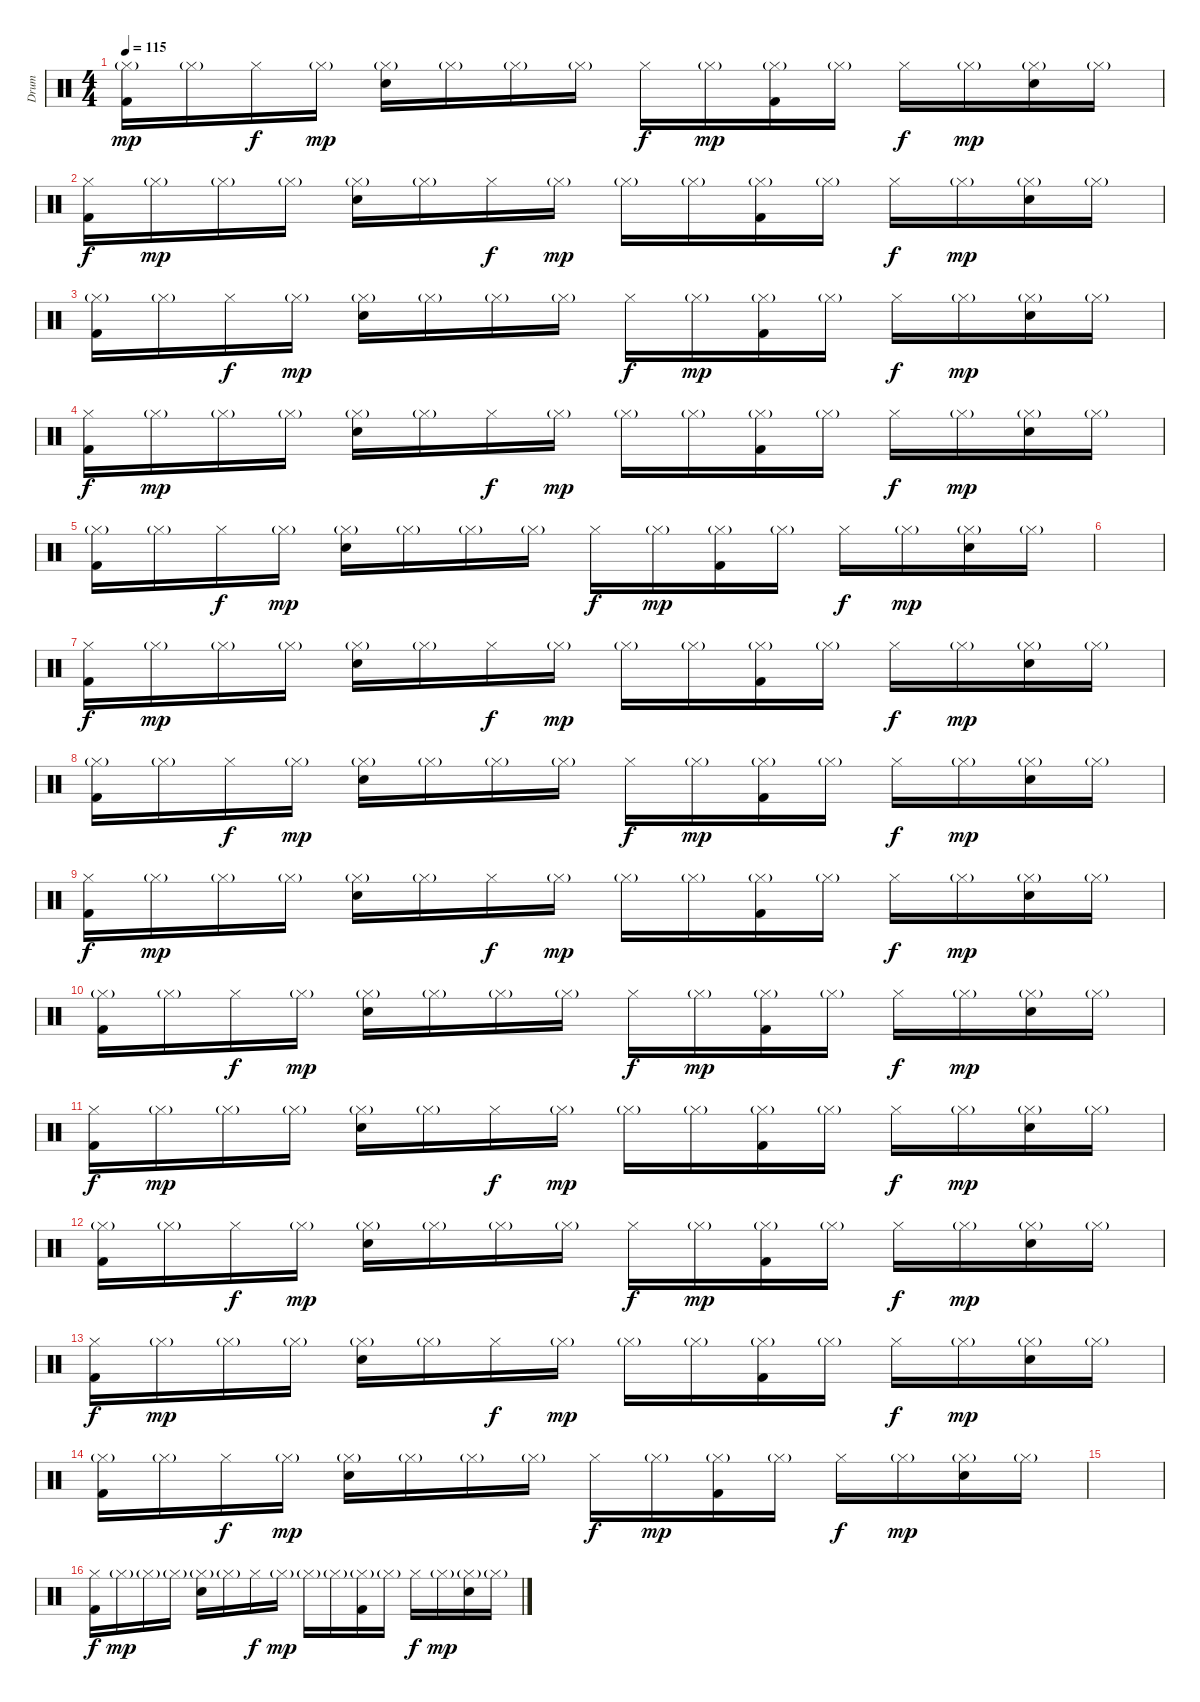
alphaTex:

\track ("Drum" "Drum") {instrument percussion}
\staff {score}
\articulation defaults
\ts (4 4)
\tempo 115
\clef neutral
\ks c
("Kick (hit) 2" "Hi-Hat (closed)"{g}).16{dy mp} "Hi-Hat (closed)"{g}.16 "Hi-Hat (closed)".16{dy f} "Hi-Hat (closed)"{g}.16{dy mp} ("Electric Snare (hit)" "Hi-Hat (closed)"{g}).16 "Hi-Hat (closed)"{g}.16 "Hi-Hat (closed)"{g}.16 "Hi-Hat (closed)"{g}.16 "Hi-Hat (closed)".16{dy f} "Hi-Hat (closed)"{g}.16{dy mp} ("Kick (hit) 2" "Hi-Hat (closed)"{g}).16 "Hi-Hat (closed)"{g}.16 "Hi-Hat (closed)".16{dy f} "Hi-Hat (closed)"{g}.16{dy mp} ("Electric Snare (hit)" "Hi-Hat (closed)"{g}).16 "Hi-Hat (closed)"{g}.16 |
("Kick (hit) 2" "Hi-Hat (closed)").16{dy f} "Hi-Hat (closed)"{g}.16{dy mp} "Hi-Hat (closed)"{g}.16 "Hi-Hat (closed)"{g}.16 ("Electric Snare (hit)" "Hi-Hat (closed)"{g}).16 "Hi-Hat (closed)"{g}.16 "Hi-Hat (closed)".16{dy f} "Hi-Hat (closed)"{g}.16{dy mp} "Hi-Hat (closed)"{g}.16 "Hi-Hat (closed)"{g}.16 ("Kick (hit) 2" "Hi-Hat (closed)"{g}).16 "Hi-Hat (closed)"{g}.16 "Hi-Hat (closed)".16{dy f} "Hi-Hat (closed)"{g}.16{dy mp} ("Electric Snare (hit)" "Hi-Hat (closed)"{g}).16 "Hi-Hat (closed)"{g}.16 |
("Kick (hit) 2" "Hi-Hat (closed)"{g}).16 "Hi-Hat (closed)"{g}.16 "Hi-Hat (closed)".16{dy f} "Hi-Hat (closed)"{g}.16{dy mp} ("Electric Snare (hit)" "Hi-Hat (closed)"{g}).16 "Hi-Hat (closed)"{g}.16 "Hi-Hat (closed)"{g}.16 "Hi-Hat (closed)"{g}.16 "Hi-Hat (closed)".16{dy f} "Hi-Hat (closed)"{g}.16{dy mp} ("Kick (hit) 2" "Hi-Hat (closed)"{g}).16 "Hi-Hat (closed)"{g}.16 "Hi-Hat (closed)".16{dy f} "Hi-Hat (closed)"{g}.16{dy mp} ("Electric Snare (hit)" "Hi-Hat (closed)"{g}).16 "Hi-Hat (closed)"{g}.16 |
("Kick (hit) 2" "Hi-Hat (closed)").16{dy f} "Hi-Hat (closed)"{g}.16{dy mp} "Hi-Hat (closed)"{g}.16 "Hi-Hat (closed)"{g}.16 ("Electric Snare (hit)" "Hi-Hat (closed)"{g}).16 "Hi-Hat (closed)"{g}.16 "Hi-Hat (closed)".16{dy f} "Hi-Hat (closed)"{g}.16{dy mp} "Hi-Hat (closed)"{g}.16 "Hi-Hat (closed)"{g}.16 ("Kick (hit) 2" "Hi-Hat (closed)"{g}).16 "Hi-Hat (closed)"{g}.16 "Hi-Hat (closed)".16{dy f} "Hi-Hat (closed)"{g}.16{dy mp} ("Electric Snare (hit)" "Hi-Hat (closed)"{g}).16 "Hi-Hat (closed)"{g}.16 |
("Kick (hit) 2" "Hi-Hat (closed)"{g}).16 "Hi-Hat (closed)"{g}.16 "Hi-Hat (closed)".16{dy f} "Hi-Hat (closed)"{g}.16{dy mp} ("Electric Snare (hit)" "Hi-Hat (closed)"{g}).16 "Hi-Hat (closed)"{g}.16 "Hi-Hat (closed)"{g}.16 "Hi-Hat (closed)"{g}.16 "Hi-Hat (closed)".16{dy f} "Hi-Hat (closed)"{g}.16{dy mp} ("Kick (hit) 2" "Hi-Hat (closed)"{g}).16 "Hi-Hat (closed)"{g}.16 "Hi-Hat (closed)".16{dy f} "Hi-Hat (closed)"{g}.16{dy mp} ("Electric Snare (hit)" "Hi-Hat (closed)"{g}).16 "Hi-Hat (closed)"{g}.16 |
|
("Kick (hit) 2" "Hi-Hat (closed)").16{dy f} "Hi-Hat (closed)"{g}.16{dy mp} "Hi-Hat (closed)"{g}.16 "Hi-Hat (closed)"{g}.16 ("Electric Snare (hit)" "Hi-Hat (closed)"{g}).16 "Hi-Hat (closed)"{g}.16 "Hi-Hat (closed)".16{dy f} "Hi-Hat (closed)"{g}.16{dy mp} "Hi-Hat (closed)"{g}.16 "Hi-Hat (closed)"{g}.16 ("Kick (hit) 2" "Hi-Hat (closed)"{g}).16 "Hi-Hat (closed)"{g}.16 "Hi-Hat (closed)".16{dy f} "Hi-Hat (closed)"{g}.16{dy mp} ("Electric Snare (hit)" "Hi-Hat (closed)"{g}).16 "Hi-Hat (closed)"{g}.16 |
("Kick (hit) 2" "Hi-Hat (closed)"{g}).16 "Hi-Hat (closed)"{g}.16 "Hi-Hat (closed)".16{dy f} "Hi-Hat (closed)"{g}.16{dy mp} ("Electric Snare (hit)" "Hi-Hat (closed)"{g}).16 "Hi-Hat (closed)"{g}.16 "Hi-Hat (closed)"{g}.16 "Hi-Hat (closed)"{g}.16 "Hi-Hat (closed)".16{dy f} "Hi-Hat (closed)"{g}.16{dy mp} ("Kick (hit) 2" "Hi-Hat (closed)"{g}).16 "Hi-Hat (closed)"{g}.16 "Hi-Hat (closed)".16{dy f} "Hi-Hat (closed)"{g}.16{dy mp} ("Electric Snare (hit)" "Hi-Hat (closed)"{g}).16 "Hi-Hat (closed)"{g}.16 |
("Kick (hit) 2" "Hi-Hat (closed)").16{dy f} "Hi-Hat (closed)"{g}.16{dy mp} "Hi-Hat (closed)"{g}.16 "Hi-Hat (closed)"{g}.16 ("Electric Snare (hit)" "Hi-Hat (closed)"{g}).16 "Hi-Hat (closed)"{g}.16 "Hi-Hat (closed)".16{dy f} "Hi-Hat (closed)"{g}.16{dy mp} "Hi-Hat (closed)"{g}.16 "Hi-Hat (closed)"{g}.16 ("Kick (hit) 2" "Hi-Hat (closed)"{g}).16 "Hi-Hat (closed)"{g}.16 "Hi-Hat (closed)".16{dy f} "Hi-Hat (closed)"{g}.16{dy mp} ("Electric Snare (hit)" "Hi-Hat (closed)"{g}).16 "Hi-Hat (closed)"{g}.16 |
("Kick (hit) 2" "Hi-Hat (closed)"{g}).16 "Hi-Hat (closed)"{g}.16 "Hi-Hat (closed)".16{dy f} "Hi-Hat (closed)"{g}.16{dy mp} ("Electric Snare (hit)" "Hi-Hat (closed)"{g}).16 "Hi-Hat (closed)"{g}.16 "Hi-Hat (closed)"{g}.16 "Hi-Hat (closed)"{g}.16 "Hi-Hat (closed)".16{dy f} "Hi-Hat (closed)"{g}.16{dy mp} ("Kick (hit) 2" "Hi-Hat (closed)"{g}).16 "Hi-Hat (closed)"{g}.16 "Hi-Hat (closed)".16{dy f} "Hi-Hat (closed)"{g}.16{dy mp} ("Electric Snare (hit)" "Hi-Hat (closed)"{g}).16 "Hi-Hat (closed)"{g}.16 |
("Kick (hit) 2" "Hi-Hat (closed)").16{dy f} "Hi-Hat (closed)"{g}.16{dy mp} "Hi-Hat (closed)"{g}.16 "Hi-Hat (closed)"{g}.16 ("Electric Snare (hit)" "Hi-Hat (closed)"{g}).16 "Hi-Hat (closed)"{g}.16 "Hi-Hat (closed)".16{dy f} "Hi-Hat (closed)"{g}.16{dy mp} "Hi-Hat (closed)"{g}.16 "Hi-Hat (closed)"{g}.16 ("Kick (hit) 2" "Hi-Hat (closed)"{g}).16 "Hi-Hat (closed)"{g}.16 "Hi-Hat (closed)".16{dy f} "Hi-Hat (closed)"{g}.16{dy mp} ("Electric Snare (hit)" "Hi-Hat (closed)"{g}).16 "Hi-Hat (closed)"{g}.16 |
("Kick (hit) 2" "Hi-Hat (closed)"{g}).16 "Hi-Hat (closed)"{g}.16 "Hi-Hat (closed)".16{dy f} "Hi-Hat (closed)"{g}.16{dy mp} ("Electric Snare (hit)" "Hi-Hat (closed)"{g}).16 "Hi-Hat (closed)"{g}.16 "Hi-Hat (closed)"{g}.16 "Hi-Hat (closed)"{g}.16 "Hi-Hat (closed)".16{dy f} "Hi-Hat (closed)"{g}.16{dy mp} ("Kick (hit) 2" "Hi-Hat (closed)"{g}).16 "Hi-Hat (closed)"{g}.16 "Hi-Hat (closed)".16{dy f} "Hi-Hat (closed)"{g}.16{dy mp} ("Electric Snare (hit)" "Hi-Hat (closed)"{g}).16 "Hi-Hat (closed)"{g}.16 |
("Kick (hit) 2" "Hi-Hat (closed)").16{dy f} "Hi-Hat (closed)"{g}.16{dy mp} "Hi-Hat (closed)"{g}.16 "Hi-Hat (closed)"{g}.16 ("Electric Snare (hit)" "Hi-Hat (closed)"{g}).16 "Hi-Hat (closed)"{g}.16 "Hi-Hat (closed)".16{dy f} "Hi-Hat (closed)"{g}.16{dy mp} "Hi-Hat (closed)"{g}.16 "Hi-Hat (closed)"{g}.16 ("Kick (hit) 2" "Hi-Hat (closed)"{g}).16 "Hi-Hat (closed)"{g}.16 "Hi-Hat (closed)".16{dy f} "Hi-Hat (closed)"{g}.16{dy mp} ("Electric Snare (hit)" "Hi-Hat (closed)"{g}).16 "Hi-Hat (closed)"{g}.16 |
("Kick (hit) 2" "Hi-Hat (closed)"{g}).16 "Hi-Hat (closed)"{g}.16 "Hi-Hat (closed)".16{dy f} "Hi-Hat (closed)"{g}.16{dy mp} ("Electric Snare (hit)" "Hi-Hat (closed)"{g}).16 "Hi-Hat (closed)"{g}.16 "Hi-Hat (closed)"{g}.16 "Hi-Hat (closed)"{g}.16 "Hi-Hat (closed)".16{dy f} "Hi-Hat (closed)"{g}.16{dy mp} ("Kick (hit) 2" "Hi-Hat (closed)"{g}).16 "Hi-Hat (closed)"{g}.16 "Hi-Hat (closed)".16{dy f} "Hi-Hat (closed)"{g}.16{dy mp} ("Electric Snare (hit)" "Hi-Hat (closed)"{g}).16 "Hi-Hat (closed)"{g}.16 |
|
("Kick (hit) 2" "Hi-Hat (closed)").16{dy f} "Hi-Hat (closed)"{g}.16{dy mp} "Hi-Hat (closed)"{g}.16 "Hi-Hat (closed)"{g}.16 ("Electric Snare (hit)" "Hi-Hat (closed)"{g}).16 "Hi-Hat (closed)"{g}.16 "Hi-Hat (closed)".16{dy f} "Hi-Hat (closed)"{g}.16{dy mp} "Hi-Hat (closed)"{g}.16 "Hi-Hat (closed)"{g}.16 ("Kick (hit) 2" "Hi-Hat (closed)"{g}).16 "Hi-Hat (closed)"{g}.16 "Hi-Hat (closed)".16{dy f} "Hi-Hat (closed)"{g}.16{dy mp} ("Electric Snare (hit)" "Hi-Hat (closed)"{g}).16 "Hi-Hat (closed)"{g}.16
